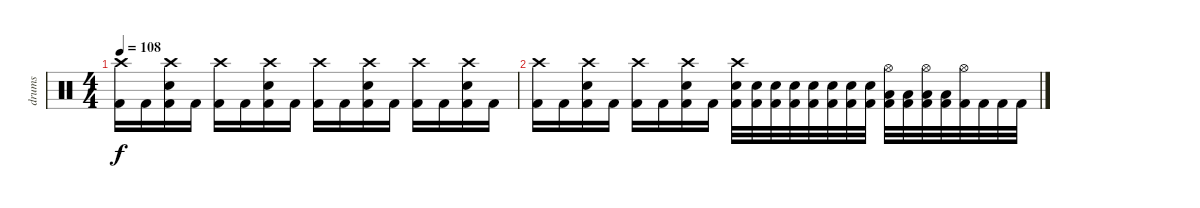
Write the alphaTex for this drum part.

\track ("drums" "drums") {instrument percussion}
\staff {score}
\articulation defaults
\ts (4 4)
\tempo 108
\clef neutral
\ks c
("Crash high (hit)" "Kick (hit) 2").16{dy f} "Kick (hit) 2".16 ("Electric Snare (hit)" "Crash high (hit)" "Kick (hit) 2").16 "Kick (hit) 2".16 ("Crash high (hit)" "Kick (hit) 2").16 "Kick (hit) 2".16 ("Electric Snare (hit)" "Crash high (hit)" "Kick (hit) 2").16 "Kick (hit) 2".16 ("Crash high (hit)" "Kick (hit) 2").16 "Kick (hit) 2".16 ("Electric Snare (hit)" "Crash high (hit)" "Kick (hit) 2").16 "Kick (hit) 2".16 ("Crash high (hit)" "Kick (hit) 2").16 "Kick (hit) 2".16 ("Electric Snare (hit)" "Crash high (hit)" "Kick (hit) 2").16 "Kick (hit) 2".16 |
("Crash high (hit)" "Kick (hit) 2").16 "Kick (hit) 2".16 ("Electric Snare (hit)" "Crash high (hit)" "Kick (hit) 2").16 "Kick (hit) 2".16 ("Crash high (hit)" "Kick (hit) 2").16 "Kick (hit) 2".16 ("Electric Snare (hit)" "Crash high (hit)" "Kick (hit) 2").16 "Kick (hit) 2".16 ("Electric Snare (hit)" "Crash high (hit)" "Kick (hit) 2").32 ("Electric Snare (hit)" "Kick (hit) 2").32 ("Electric Snare (hit)" "Kick (hit) 2").32 ("Electric Snare (hit)" "Kick (hit) 2").32 ("Electric Snare (hit)" "Kick (hit) 2").32 ("Electric Snare (hit)" "Kick (hit) 2").32 ("Electric Snare (hit)" "Kick (hit) 2").32 ("Electric Snare (hit)" "Kick (hit) 2").32 ("Hi-Hat (open)" "Low Floor Tom (hit)" "Kick (hit) 2").32 ("Low Floor Tom (hit)" "Kick (hit) 2").32 ("Hi-Hat (open)" "Low Floor Tom (hit)" "Kick (hit) 2").32 ("Low Floor Tom (hit)" "Kick (hit) 2").32 ("Hi-Hat (open)" "Kick (hit) 2").32 "Kick (hit) 2".32 "Kick (hit) 2".32 "Kick (hit) 2".32
